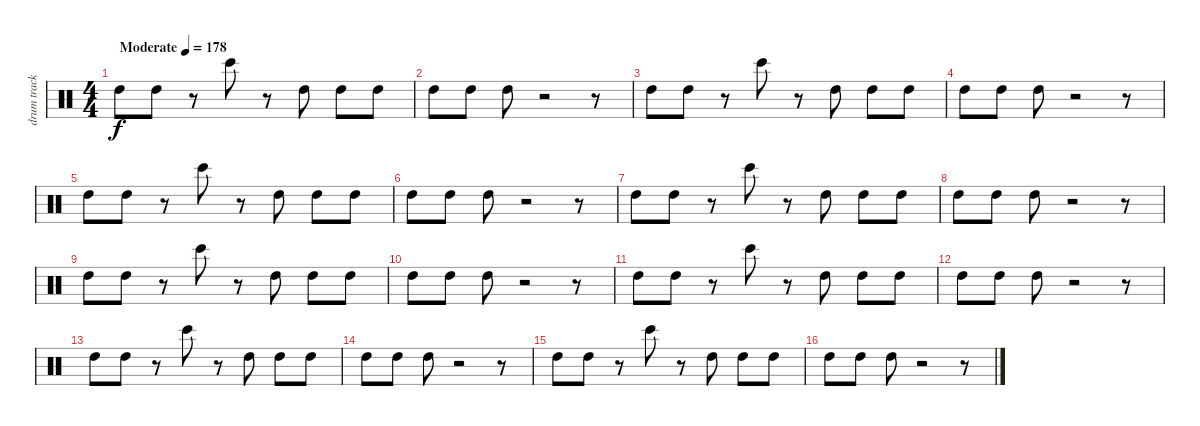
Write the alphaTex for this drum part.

\track ("drum track II" "drum track") {instrument percussion}
\staff {score}
\articulation defaults
\ts (4 4)
\tempo (178 "Moderate")
\clef neutral
\ks c "High Tom (hit)".8{dy f} "High Tom (hit)".8
r.8 "Bongo High (hit)".8 r.8 "High Tom (hit)".8 "High Tom (hit)".8 "High Tom (hit)".8 |
"High Tom (hit)".8 "High Tom (hit)".8 "High Tom (hit)".8 r.2 r.8 |
"High Tom (hit)".8 "High Tom (hit)".8 r.8 "Bongo High (hit)".8 r.8 "High Tom (hit)".8 "High Tom (hit)".8 "High Tom (hit)".8 |
"High Tom (hit)".8 "High Tom (hit)".8 "High Tom (hit)".8 r.2 r.8 |
"High Tom (hit)".8 "High Tom (hit)".8 r.8 "Bongo High (hit)".8 r.8 "High Tom (hit)".8 "High Tom (hit)".8 "High Tom (hit)".8 |
"High Tom (hit)".8 "High Tom (hit)".8 "High Tom (hit)".8 r.2 r.8 |
"High Tom (hit)".8 "High Tom (hit)".8 r.8 "Bongo High (hit)".8 r.8 "High Tom (hit)".8 "High Tom (hit)".8 "High Tom (hit)".8 |
"High Tom (hit)".8 "High Tom (hit)".8 "High Tom (hit)".8 r.2 r.8 |
"High Tom (hit)".8 "High Tom (hit)".8 r.8 "Bongo High (hit)".8 r.8 "High Tom (hit)".8 "High Tom (hit)".8 "High Tom (hit)".8 |
"High Tom (hit)".8 "High Tom (hit)".8 "High Tom (hit)".8 r.2 r.8 |
"High Tom (hit)".8 "High Tom (hit)".8 r.8 "Bongo High (hit)".8 r.8 "High Tom (hit)".8 "High Tom (hit)".8 "High Tom (hit)".8 |
"High Tom (hit)".8 "High Tom (hit)".8 "High Tom (hit)".8 r.2 r.8 |
"High Tom (hit)".8 "High Tom (hit)".8 r.8 "Bongo High (hit)".8 r.8 "High Tom (hit)".8 "High Tom (hit)".8 "High Tom (hit)".8 |
"High Tom (hit)".8 "High Tom (hit)".8 "High Tom (hit)".8 r.2 r.8 |
"High Tom (hit)".8 "High Tom (hit)".8 r.8 "Bongo High (hit)".8 r.8 "High Tom (hit)".8 "High Tom (hit)".8 "High Tom (hit)".8 |
"High Tom (hit)".8 "High Tom (hit)".8 "High Tom (hit)".8 r.2 r.8
